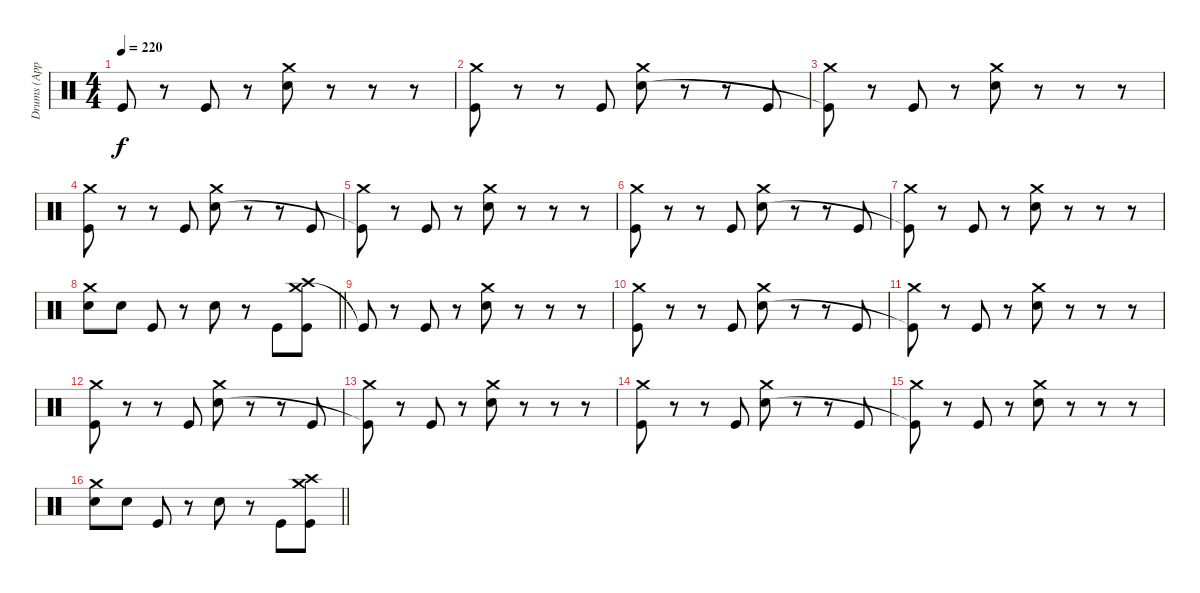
\track ("Drums (Approx.)" "Drums (App") {instrument percussion}
\staff {score}
\articulation defaults
\ts (4 4)
\section ("" "")
\tempo 220
\clef neutral
\ks c "Kick (hit)"{t}.8{dy f}
r.8 "Kick (hit)".8 r.8 ("Crash medium (hit)" "Electric Snare (hit)").8 r.8 r.8 r.8 |
("Crash medium (hit)" "Kick (hit)").8 r.8 r.8 "Kick (hit)".8 ("Crash medium (hit)" "Electric Snare (hit)").8 r.8 r.8 "Kick (hit)".8 |
("Crash medium (hit)" "Kick (hit)"{t}).8 r.8 "Kick (hit)".8 r.8 ("Crash medium (hit)" "Electric Snare (hit)").8 r.8 r.8 r.8 |
("Crash medium (hit)" "Kick (hit)").8 r.8 r.8 "Kick (hit)".8 ("Crash medium (hit)" "Electric Snare (hit)").8 r.8 r.8 "Kick (hit)".8 |
("Crash medium (hit)" "Kick (hit)"{t}).8 r.8 "Kick (hit)".8 r.8 ("Crash medium (hit)" "Electric Snare (hit)").8 r.8 r.8 r.8 |
("Crash medium (hit)" "Kick (hit)").8 r.8 r.8 "Kick (hit)".8 ("Crash medium (hit)" "Electric Snare (hit)").8 r.8 r.8 "Kick (hit)".8 |
("Crash medium (hit)" "Kick (hit)"{t}).8 r.8 "Kick (hit)".8 r.8 ("Crash medium (hit)" "Electric Snare (hit)").8 r.8 r.8 r.8 |
\barLineRight lightlight
("Crash medium (hit)" "Electric Snare (hit)").8 "Electric Snare (hit)".8 "Kick (hit)".8 r.8 "Electric Snare (hit)".8 r.8 "Kick (hit)".8 ("Crash medium (hit)" "Crash high (hit)" "Kick (hit)").8 |
"Kick (hit)"{t}.8 r.8 "Kick (hit)".8 r.8 ("Crash medium (hit)" "Electric Snare (hit)").8 r.8 r.8 r.8 |
("Crash medium (hit)" "Kick (hit)").8 r.8 r.8 "Kick (hit)".8 ("Crash medium (hit)" "Electric Snare (hit)").8 r.8 r.8 "Kick (hit)".8 |
("Crash medium (hit)" "Kick (hit)"{t}).8 r.8 "Kick (hit)".8 r.8 ("Crash medium (hit)" "Electric Snare (hit)").8 r.8 r.8 r.8 |
("Crash medium (hit)" "Kick (hit)").8 r.8 r.8 "Kick (hit)".8 ("Crash medium (hit)" "Electric Snare (hit)").8 r.8 r.8 "Kick (hit)".8 |
("Crash medium (hit)" "Kick (hit)"{t}).8 r.8 "Kick (hit)".8 r.8 ("Crash medium (hit)" "Electric Snare (hit)").8 r.8 r.8 r.8 |
("Crash medium (hit)" "Kick (hit)").8 r.8 r.8 "Kick (hit)".8 ("Crash medium (hit)" "Electric Snare (hit)").8 r.8 r.8 "Kick (hit)".8 |
("Crash medium (hit)" "Kick (hit)"{t}).8 r.8 "Kick (hit)".8 r.8 ("Crash medium (hit)" "Electric Snare (hit)").8 r.8 r.8 r.8 |
\barLineRight lightlight
("Crash medium (hit)" "Electric Snare (hit)").8 "Electric Snare (hit)".8 "Kick (hit)".8 r.8 "Electric Snare (hit)".8 r.8 "Kick (hit)".8 ("Crash medium (hit)" "Crash high (hit)" "Kick (hit)").8
